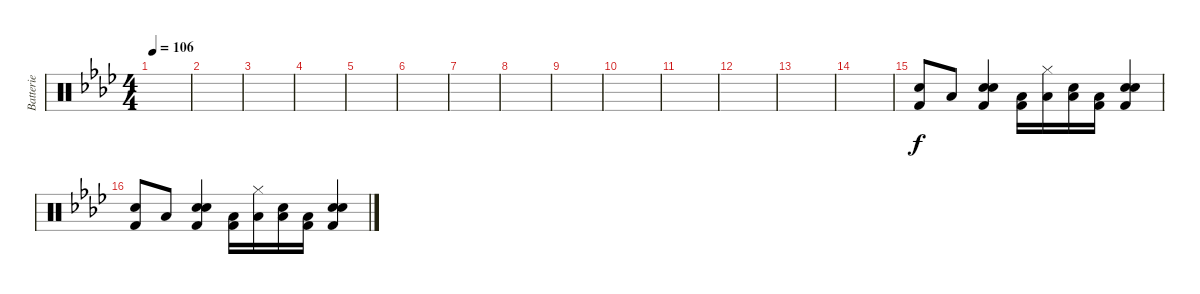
\track ("Batterie" "Batterie") {instrument percussion}
\staff {score}
\articulation defaults
\ts (4 4)
\tempo 106
\clef neutral
\ks ab
|
|
|
|
|
|
|
|
|
|
|
|
|
|
("Kick (hit) 2" "Electric Snare (hit)").8 "Low Floor Tom (hit)".8 ("Snare (hit) 2" "Kick (hit) 2" "Electric Snare (hit)").4 ("Kick (hit) 2" "Low Floor Tom (hit)").16 ("Low Floor Tom (hit)" "Hi-Hat (closed)").16 ("Low Floor Tom (hit)" "Electric Snare (hit)").16 ("Kick (hit) 2" "Low Floor Tom (hit)").16 ("Snare (hit) 2" "Kick (hit) 2" "Electric Snare (hit)").4 |
("Kick (hit) 2" "Electric Snare (hit)").8 "Low Floor Tom (hit)".8 ("Snare (hit) 2" "Kick (hit) 2" "Electric Snare (hit)").4 ("Kick (hit) 2" "Low Floor Tom (hit)").16 ("Low Floor Tom (hit)" "Hi-Hat (closed)").16 ("Low Floor Tom (hit)" "Electric Snare (hit)").16 ("Kick (hit) 2" "Low Floor Tom (hit)").16 ("Snare (hit) 2" "Kick (hit) 2" "Electric Snare (hit)").4
